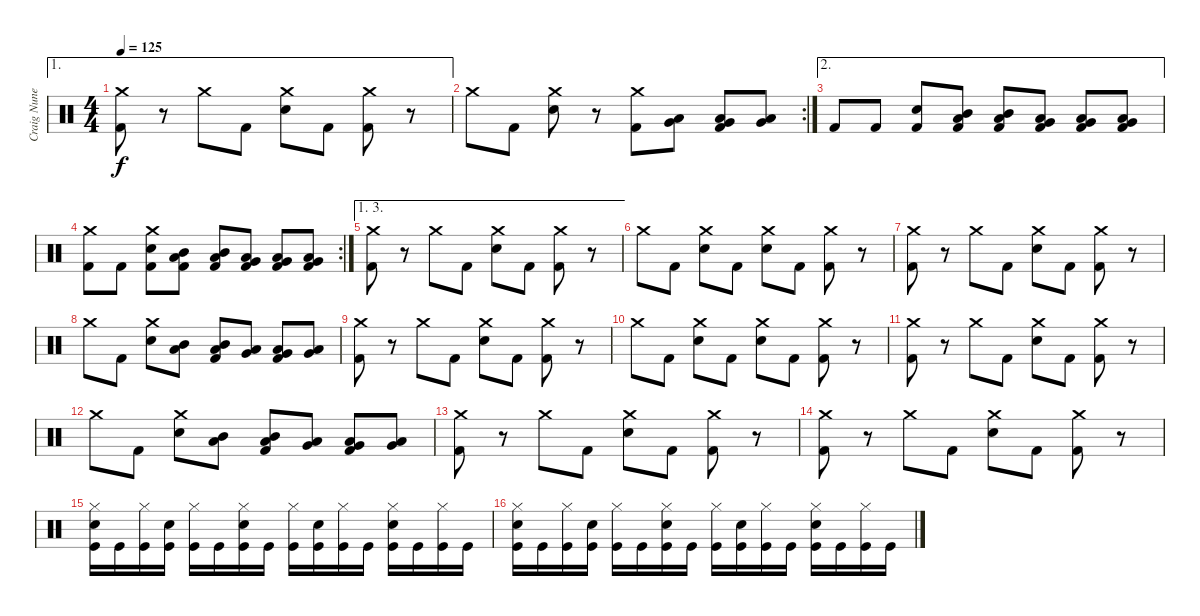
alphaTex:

\track ("Craig Nunenmacher (Drums)" "Craig Nune") {instrument percussion}
\staff {score}
\articulation defaults
\ae 1
\ts (4 4)
\tempo 125
\clef neutral
\ks c
("Crash medium (hit)" "Kick (hit) 2").8{dy f} r.8 "Crash medium (hit)".8 "Kick (hit) 2".8 ("Crash medium (hit)" "Snare (hit) 2").8 "Kick (hit) 2".8 ("Crash medium (hit)" "Kick (hit) 2").8 r.8 |
\rc 2 "Crash medium (hit)".8 "Kick (hit) 2".8
("Crash medium (hit)" "Snare (hit) 2").8 r.8 ("Crash medium (hit)" "Kick (hit) 2").8 ("Low Tom (hit)" "Very Low Tom (hit)").8 ("Low Tom (hit)" "Very Low Tom (hit)" "Kick (hit) 2").8 ("Very Low Tom (hit)" "Low Floor Tom (hit)").8 |
\ae 2 "Kick (hit) 2".8 "Kick (hit) 2".8
("Snare (hit) 2" "Kick (hit) 2").8 ("Mid Tom (hit)" "Low Tom (hit)" "Kick (hit) 2").8 ("Mid Tom (hit)" "Low Tom (hit)" "Kick (hit) 2").8 ("Low Tom (hit)" "Very Low Tom (hit)" "Kick (hit) 2").8 ("Low Tom (hit)" "Very Low Tom (hit)" "Kick (hit) 2").8 ("Very Low Tom (hit)" "Low Floor Tom (hit)" "Kick (hit) 2").8 |
\rc 2
("Crash medium (hit)" "Kick (hit) 2").8 "Kick (hit) 2".8 ("Crash medium (hit)" "Snare (hit) 2" "Kick (hit) 2").8 ("Mid Tom (hit)" "Low Tom (hit)" "Kick (hit) 2").8 ("Mid Tom (hit)" "Low Tom (hit)" "Kick (hit) 2").8 ("Low Tom (hit)" "Very Low Tom (hit)" "Kick (hit) 2").8 ("Low Tom (hit)" "Very Low Tom (hit)" "Kick (hit) 2").8 ("Very Low Tom (hit)" "Low Floor Tom (hit)" "Kick (hit) 2").8 |
\ae (1 3)
("Crash medium (hit)" "Kick (hit) 2").8 r.8 "Crash medium (hit)".8 "Kick (hit) 2".8 ("Crash medium (hit)" "Snare (hit) 2").8 "Kick (hit) 2".8 ("Crash medium (hit)" "Kick (hit) 2").8 r.8 |
"Crash medium (hit)".8 "Kick (hit) 2".8 ("Crash medium (hit)" "Snare (hit) 2").8 "Kick (hit) 2".8 ("Crash medium (hit)" "Snare (hit) 2").8 "Kick (hit) 2".8 ("Crash medium (hit)" "Kick (hit) 2").8 r.8 |
("Crash medium (hit)" "Kick (hit) 2").8 r.8 "Crash medium (hit)".8 "Kick (hit) 2".8 ("Crash medium (hit)" "Snare (hit) 2").8 "Kick (hit) 2".8 ("Crash medium (hit)" "Kick (hit) 2").8 r.8 |
"Crash medium (hit)".8 "Kick (hit) 2".8 ("Crash medium (hit)" "Snare (hit) 2").8 ("Mid Tom (hit)" "Low Tom (hit)").8 ("Mid Tom (hit)" "Low Tom (hit)" "Kick (hit) 2").8 ("Low Tom (hit)" "Very Low Tom (hit)").8 ("Low Tom (hit)" "Very Low Tom (hit)" "Kick (hit) 2").8 ("Very Low Tom (hit)" "Low Floor Tom (hit)").8 |
("Crash medium (hit)" "Kick (hit) 2").8 r.8 "Crash medium (hit)".8 "Kick (hit) 2".8 ("Crash medium (hit)" "Snare (hit) 2").8 "Kick (hit) 2".8 ("Crash medium (hit)" "Kick (hit) 2").8 r.8 |
"Crash medium (hit)".8 "Kick (hit) 2".8 ("Crash medium (hit)" "Snare (hit) 2").8 "Kick (hit) 2".8 ("Crash medium (hit)" "Snare (hit) 2").8 "Kick (hit) 2".8 ("Crash medium (hit)" "Kick (hit) 2").8 r.8 |
("Crash medium (hit)" "Kick (hit) 2").8 r.8 "Crash medium (hit)".8 "Kick (hit) 2".8 ("Crash medium (hit)" "Snare (hit) 2").8 "Kick (hit) 2".8 ("Crash medium (hit)" "Kick (hit) 2").8 r.8 |
"Crash medium (hit)".8 "Kick (hit) 2".8 ("Crash medium (hit)" "Snare (hit) 2").8 ("Mid Tom (hit)" "Low Tom (hit)").8 ("Mid Tom (hit)" "Low Tom (hit)" "Kick (hit) 2").8 ("Low Tom (hit)" "Very Low Tom (hit)").8 ("Low Tom (hit)" "Very Low Tom (hit)" "Kick (hit) 2").8 ("Very Low Tom (hit)" "Low Floor Tom (hit)").8 |
("Crash medium (hit)" "Kick (hit) 2").8 r.8 "Crash medium (hit)".8 "Kick (hit) 2".8 ("Crash medium (hit)" "Snare (hit) 2").8 "Kick (hit) 2".8 ("Crash medium (hit)" "Kick (hit) 2").8 r.8 |
("Crash medium (hit)" "Kick (hit) 2").8 r.8 "Crash medium (hit)".8 "Kick (hit) 2".8 ("Crash medium (hit)" "Snare (hit) 2").8 "Kick (hit) 2".8 ("Crash medium (hit)" "Kick (hit) 2").8 r.8 |
("Hi-Hat (closed)" "Snare (hit) 2" "Kick (hit)").16 "Kick (hit)".16 ("Hi-Hat (closed)" "Kick (hit)").16 ("Snare (hit) 2" "Kick (hit)").16 ("Hi-Hat (closed)" "Kick (hit)").16 "Kick (hit)".16 ("Hi-Hat (closed)" "Snare (hit) 2" "Kick (hit)").16 "Kick (hit)".16 ("Hi-Hat (closed)" "Kick (hit)").16 ("Snare (hit) 2" "Kick (hit)").16 ("Hi-Hat (closed)" "Kick (hit)").16 "Kick (hit)".16 ("Hi-Hat (closed)" "Snare (hit) 2" "Kick (hit)").16 "Kick (hit)".16 ("Hi-Hat (closed)" "Kick (hit)").16 "Kick (hit)".16 |
("Hi-Hat (closed)" "Snare (hit) 2" "Kick (hit)").16 "Kick (hit)".16 ("Hi-Hat (closed)" "Kick (hit)").16 ("Snare (hit) 2" "Kick (hit)").16 ("Hi-Hat (closed)" "Kick (hit)").16 "Kick (hit)".16 ("Hi-Hat (closed)" "Snare (hit) 2" "Kick (hit)").16 "Kick (hit)".16 ("Hi-Hat (closed)" "Kick (hit)").16 ("Snare (hit) 2" "Kick (hit)").16 ("Hi-Hat (closed)" "Kick (hit)").16 "Kick (hit)".16 ("Hi-Hat (closed)" "Snare (hit) 2" "Kick (hit)").16 "Kick (hit)".16 ("Hi-Hat (closed)" "Kick (hit)").16 "Kick (hit)".16
